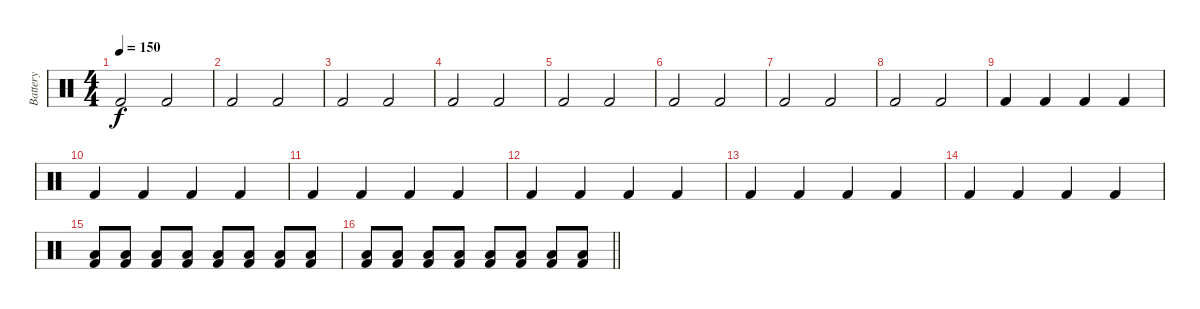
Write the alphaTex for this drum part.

\track ("Battery" "Battery") {instrument percussion}
\staff {score}
\articulation defaults
\ts (4 4)
\tempo 150
\clef neutral
\ks c "Kick (hit) 2".2{dy f} "Kick (hit) 2".2
|
"Kick (hit) 2".2 "Kick (hit) 2".2 |
"Kick (hit) 2".2 "Kick (hit) 2".2 |
"Kick (hit) 2".2 "Kick (hit) 2".2 |
"Kick (hit) 2".2 "Kick (hit) 2".2 |
"Kick (hit) 2".2 "Kick (hit) 2".2 |
"Kick (hit) 2".2 "Kick (hit) 2".2 |
"Kick (hit) 2".2 "Kick (hit) 2".2 |
"Kick (hit) 2".4 "Kick (hit) 2".4 "Kick (hit) 2".4 "Kick (hit) 2".4 |
"Kick (hit) 2".4 "Kick (hit) 2".4 "Kick (hit) 2".4 "Kick (hit) 2".4 |
"Kick (hit) 2".4 "Kick (hit) 2".4 "Kick (hit) 2".4 "Kick (hit) 2".4 |
"Kick (hit) 2".4 "Kick (hit) 2".4 "Kick (hit) 2".4 "Kick (hit) 2".4 |
"Kick (hit) 2".4 "Kick (hit) 2".4 "Kick (hit) 2".4 "Kick (hit) 2".4 |
"Kick (hit) 2".4 "Kick (hit) 2".4 "Kick (hit) 2".4 "Kick (hit) 2".4 |
("Low Tom (hit)" "Kick (hit) 2").8 ("Low Tom (hit)" "Kick (hit) 2").8 ("Low Tom (hit)" "Kick (hit) 2").8 ("Low Tom (hit)" "Kick (hit) 2").8 ("Low Tom (hit)" "Kick (hit) 2").8 ("Low Tom (hit)" "Kick (hit) 2").8 ("Low Tom (hit)" "Kick (hit) 2").8 ("Low Tom (hit)" "Kick (hit) 2").8 |
\barLineRight lightlight
("Low Tom (hit)" "Kick (hit) 2").8 ("Low Tom (hit)" "Kick (hit) 2").8 ("Low Tom (hit)" "Kick (hit) 2").8 ("Low Tom (hit)" "Kick (hit) 2").8 ("Low Tom (hit)" "Kick (hit) 2").8 ("Low Tom (hit)" "Kick (hit) 2").8 ("Low Tom (hit)" "Kick (hit) 2").8 ("Low Tom (hit)" "Kick (hit) 2").8
